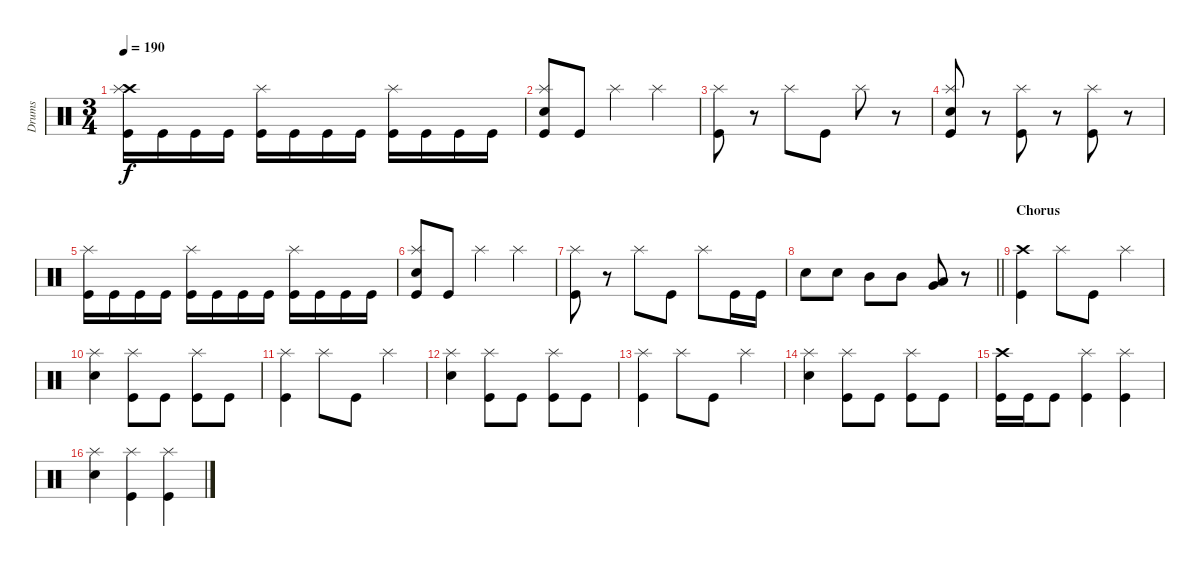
\track ("Drums" "Drums") {instrument percussion}
\staff {score}
\articulation defaults
\ts (3 4)
\tempo 190
\clef neutral
\ks c
("Kick (hit)" "Crash high (hit)" "Splash (hit)").16{dy f} "Kick (hit)".16 "Kick (hit)".16 "Kick (hit)".16 ("Kick (hit)" "Splash (hit)").16 "Kick (hit)".16 "Kick (hit)".16 "Kick (hit)".16 ("Kick (hit)" "Splash (hit)").16 "Kick (hit)".16 "Kick (hit)".16 "Kick (hit)".16 |
("Kick (hit)" "Splash (hit)" "Snare (hit) 2").8 "Kick (hit)".8 "Splash (hit)".4 "Splash (hit)".4 |
("Kick (hit)" "Splash (hit)").8 r.8 "Splash (hit)".8 "Kick (hit)".8 "Splash (hit)".8 r.8 |
("Kick (hit)" "Splash (hit)" "Snare (hit) 2").8 r.8 ("Kick (hit)" "Splash (hit)").8 r.8 ("Kick (hit)" "Splash (hit)").8 r.8 |
("Kick (hit)" "Splash (hit)").16 "Kick (hit)".16 "Kick (hit)".16 "Kick (hit)".16 ("Kick (hit)" "Splash (hit)").16 "Kick (hit)".16 "Kick (hit)".16 "Kick (hit)".16 ("Kick (hit)" "Splash (hit)").16 "Kick (hit)".16 "Kick (hit)".16 "Kick (hit)".16 |
("Kick (hit)" "Splash (hit)" "Snare (hit) 2").8 "Kick (hit)".8 "Splash (hit)".4 "Splash (hit)".4 |
("Kick (hit)" "Splash (hit)").8 r.8 "Splash (hit)".8 "Kick (hit)".8 "Splash (hit)".8 "Kick (hit)".16 "Kick (hit)".16 |
\barLineRight lightlight "Snare (hit) 2".8 "Snare (hit) 2".8 "Mid Tom (hit)".8 "Mid Tom (hit)".8
("Very Low Tom (hit)" "Low Floor Tom (hit)").8 r.8 |
\section ("" "Chorus")
("Kick (hit)" "Crash high (hit)").4 "Splash (hit)".8 "Kick (hit)".8 "Splash (hit)".4 |
("Snare (hit) 2" "Splash (hit)").4 ("Splash (hit)" "Kick (hit)").8 "Kick (hit)".8 ("Kick (hit)" "Splash (hit)").8 "Kick (hit)".8 |
("Kick (hit)" "Splash (hit)").4 "Splash (hit)".8 "Kick (hit)".8 "Splash (hit)".4 |
("Snare (hit) 2" "Splash (hit)").4 ("Splash (hit)" "Kick (hit)").8 "Kick (hit)".8 ("Kick (hit)" "Splash (hit)").8 "Kick (hit)".8 |
("Kick (hit)" "Splash (hit)").4 "Splash (hit)".8 "Kick (hit)".8 "Splash (hit)".4 |
("Snare (hit) 2" "Splash (hit)").4 ("Splash (hit)" "Kick (hit)").8 "Kick (hit)".8 ("Kick (hit)" "Splash (hit)").8 "Kick (hit)".8 |
("Kick (hit)" "Crash high (hit)").16 "Kick (hit)".16 "Kick (hit)".8 ("Splash (hit)" "Kick (hit)").4 ("Kick (hit)" "Splash (hit)").4 |
("Snare (hit) 2" "Splash (hit)").4 ("Splash (hit)" "Kick (hit)").4 ("Splash (hit)" "Kick (hit)").4
